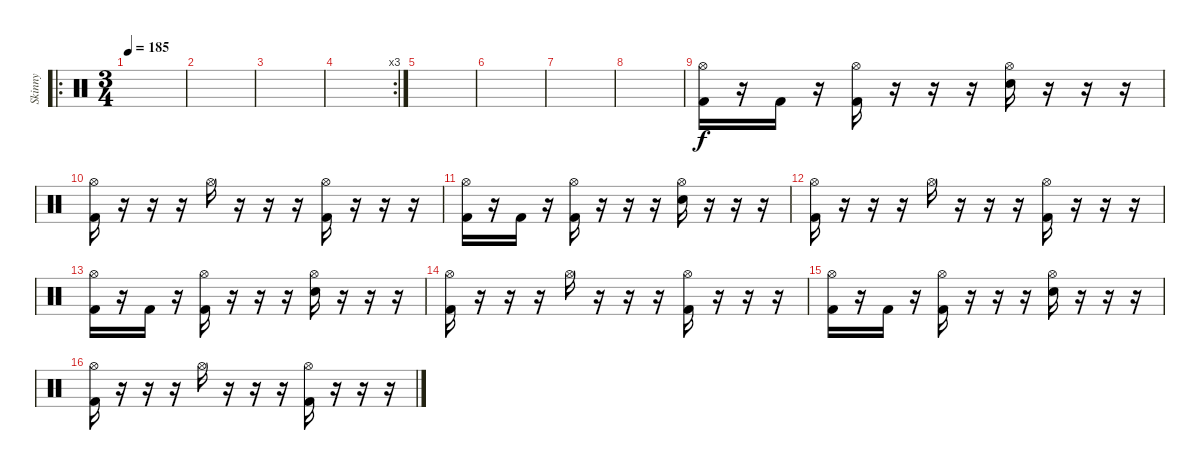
\track ("Skinny" "Skinny") {instrument percussion}
\staff {score}
\articulation defaults
\ro
\ts (3 4)
\tempo 185
\clef neutral
\ks c
|
|
|
\rc 3
|
|
|
|
|
("Hi-Hat (open)" "Kick (hit) 2").16 r.16 "Kick (hit) 2".16 r.16 ("Hi-Hat (open)" "Kick (hit) 2").16 r.16 r.16 r.16 ("Hi-Hat (open)" "Snare (hit) 2").16 r.16 r.16 r.16 |
("Hi-Hat (open)" "Kick (hit) 2").16 r.16 r.16 r.16 "Hi-Hat (open)".16 r.16 r.16 r.16 ("Hi-Hat (open)" "Kick (hit) 2").16 r.16 r.16 r.16 |
("Hi-Hat (open)" "Kick (hit) 2").16 r.16 "Kick (hit) 2".16 r.16 ("Hi-Hat (open)" "Kick (hit) 2").16 r.16 r.16 r.16 ("Hi-Hat (open)" "Snare (hit) 2").16 r.16 r.16 r.16 |
("Hi-Hat (open)" "Kick (hit) 2").16 r.16 r.16 r.16 "Hi-Hat (open)".16 r.16 r.16 r.16 ("Hi-Hat (open)" "Kick (hit) 2").16 r.16 r.16 r.16 |
("Hi-Hat (open)" "Kick (hit) 2").16 r.16 "Kick (hit) 2".16 r.16 ("Hi-Hat (open)" "Kick (hit) 2").16 r.16 r.16 r.16 ("Hi-Hat (open)" "Snare (hit) 2").16 r.16 r.16 r.16 |
("Hi-Hat (open)" "Kick (hit) 2").16 r.16 r.16 r.16 "Hi-Hat (open)".16 r.16 r.16 r.16 ("Hi-Hat (open)" "Kick (hit) 2").16 r.16 r.16 r.16 |
("Hi-Hat (open)" "Kick (hit) 2").16 r.16 "Kick (hit) 2".16 r.16 ("Hi-Hat (open)" "Kick (hit) 2").16 r.16 r.16 r.16 ("Hi-Hat (open)" "Snare (hit) 2").16 r.16 r.16 r.16 |
("Hi-Hat (open)" "Kick (hit) 2").16 r.16 r.16 r.16 "Hi-Hat (open)".16 r.16 r.16 r.16 ("Hi-Hat (open)" "Kick (hit) 2").16 r.16 r.16 r.16
